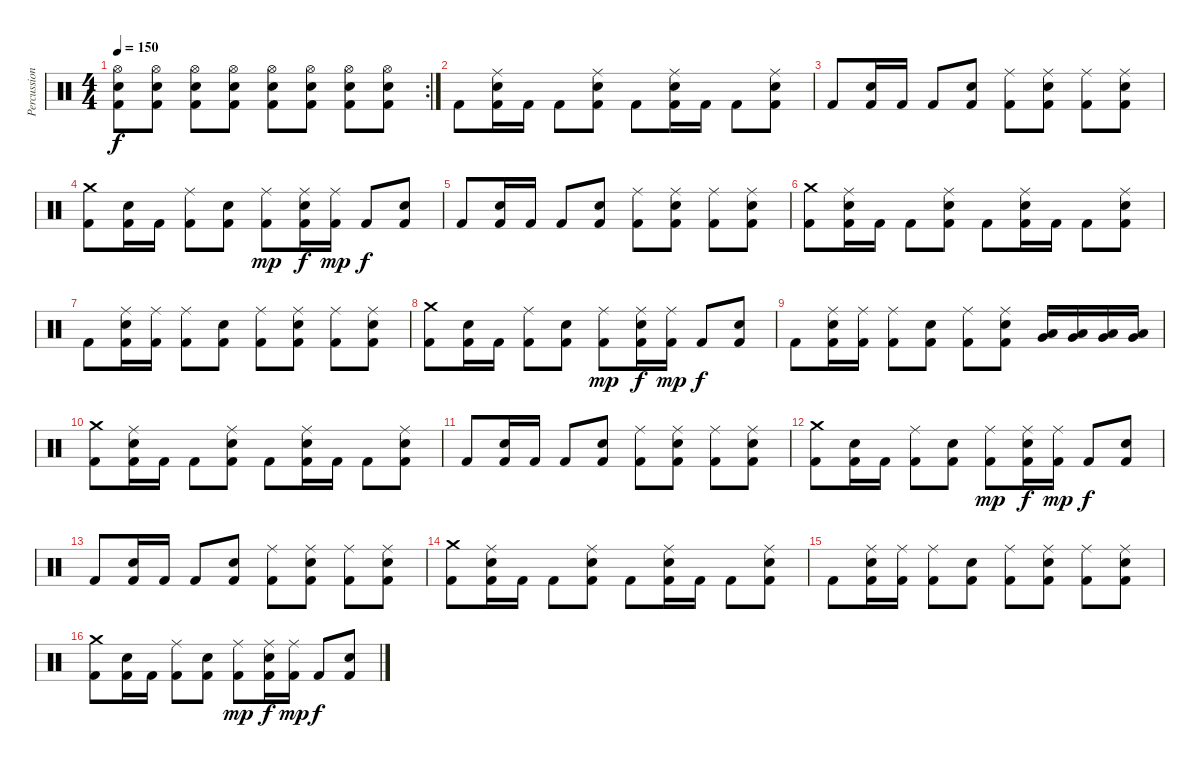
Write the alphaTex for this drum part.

\track ("Percussions" "Percussion") {instrument percussion}
\staff {score}
\articulation defaults
\rc 2
\ts (4 4)
\tempo 150
\clef neutral
\ks c
("Hi-Hat (open)" "Snare (hit) 2" "Kick (hit) 2").8{dy f} ("Hi-Hat (open)" "Snare (hit) 2" "Kick (hit) 2").8 ("Hi-Hat (open)" "Snare (hit) 2" "Kick (hit) 2").8 ("Hi-Hat (open)" "Snare (hit) 2" "Kick (hit) 2").8 ("Hi-Hat (open)" "Snare (hit) 2" "Kick (hit) 2").8 ("Hi-Hat (open)" "Snare (hit) 2" "Kick (hit) 2").8 ("Hi-Hat (open)" "Snare (hit) 2" "Kick (hit) 2").8 ("Hi-Hat (open)" "Snare (hit) 2" "Kick (hit) 2").8 |
"Kick (hit) 2".8 ("Ride (middle)" "Snare (hit) 2" "Kick (hit) 2").16 "Kick (hit) 2".16 "Kick (hit) 2".8 ("Ride (middle)" "Snare (hit) 2" "Kick (hit) 2").8 "Kick (hit) 2".8 ("Ride (middle)" "Snare (hit) 2" "Kick (hit) 2").16 "Kick (hit) 2".16 "Kick (hit) 2".8 ("Ride (middle)" "Snare (hit) 2" "Kick (hit) 2").8 |
"Kick (hit) 2".8 ("Snare (hit) 2" "Kick (hit) 2").16 "Kick (hit) 2".16 "Kick (hit) 2".8 ("Snare (hit) 2" "Kick (hit) 2").8 ("Ride (middle)" "Kick (hit) 2").8 ("Ride (middle)" "Snare (hit) 2" "Kick (hit) 2").8 ("Ride (middle)" "Kick (hit) 2").8 ("Ride (middle)" "Snare (hit) 2" "Kick (hit) 2").8 |
("Crash medium (hit)" "Kick (hit) 2").8 ("Snare (hit) 2" "Kick (hit) 2").16 "Kick (hit) 2".16 ("Ride (middle)" "Kick (hit) 2").8 ("Snare (hit) 2" "Kick (hit) 2").8 ("Ride (middle)" "Kick (hit) 2").8{dy mp} ("Ride (middle)" "Snare (hit) 2" "Kick (hit) 2").16{dy f} ("Ride (middle)" "Kick (hit) 2").16{dy mp} "Kick (hit) 2".8{dy f} ("Snare (hit) 2" "Kick (hit) 2").8 |
"Kick (hit) 2".8 ("Snare (hit) 2" "Kick (hit) 2").16 "Kick (hit) 2".16 "Kick (hit) 2".8 ("Snare (hit) 2" "Kick (hit) 2").8 ("Ride (middle)" "Kick (hit) 2").8 ("Ride (middle)" "Snare (hit) 2" "Kick (hit) 2").8 ("Ride (middle)" "Kick (hit) 2").8 ("Ride (middle)" "Snare (hit) 2" "Kick (hit) 2").8 |
("Crash medium (hit)" "Kick (hit) 2").8 ("Ride (middle)" "Snare (hit) 2" "Kick (hit) 2").16 "Kick (hit) 2".16 "Kick (hit) 2".8 ("Ride (middle)" "Snare (hit) 2" "Kick (hit) 2").8 "Kick (hit) 2".8 ("Ride (middle)" "Snare (hit) 2" "Kick (hit) 2").16 "Kick (hit) 2".16 "Kick (hit) 2".8 ("Ride (middle)" "Snare (hit) 2" "Kick (hit) 2").8 |
"Kick (hit) 2".8 ("Ride (middle)" "Snare (hit) 2" "Kick (hit) 2").16 ("Ride (middle)" "Kick (hit) 2").16 ("Ride (middle)" "Kick (hit) 2").8 ("Snare (hit) 2" "Kick (hit) 2").8 ("Ride (middle)" "Kick (hit) 2").8 ("Ride (middle)" "Snare (hit) 2" "Kick (hit) 2").8 ("Ride (middle)" "Kick (hit) 2").8 ("Ride (middle)" "Snare (hit) 2" "Kick (hit) 2").8 |
("Crash medium (hit)" "Kick (hit) 2").8 ("Snare (hit) 2" "Kick (hit) 2").16 "Kick (hit) 2".16 ("Ride (middle)" "Kick (hit) 2").8 ("Snare (hit) 2" "Kick (hit) 2").8 ("Ride (middle)" "Kick (hit) 2").8{dy mp} ("Ride (middle)" "Snare (hit) 2" "Kick (hit) 2").16{dy f} ("Ride (middle)" "Kick (hit) 2").16{dy mp} "Kick (hit) 2".8{dy f} ("Snare (hit) 2" "Kick (hit) 2").8 |
"Kick (hit) 2".8 ("Ride (middle)" "Snare (hit) 2" "Kick (hit) 2").16 ("Ride (middle)" "Kick (hit) 2").16 ("Ride (middle)" "Kick (hit) 2").8 ("Snare (hit) 2" "Kick (hit) 2").8 ("Ride (middle)" "Kick (hit) 2").8 ("Ride (middle)" "Snare (hit) 2" "Kick (hit) 2").8 ("Low Tom (hit)" "Very Low Tom (hit)").16 ("Low Tom (hit)" "Very Low Tom (hit)").16 ("Low Tom (hit)" "Very Low Tom (hit)").16 ("Very Low Tom (hit)" "Low Tom (hit)").16 |
("Crash medium (hit)" "Kick (hit) 2").8 ("Ride (middle)" "Snare (hit) 2" "Kick (hit) 2").16 "Kick (hit) 2".16 "Kick (hit) 2".8 ("Ride (middle)" "Snare (hit) 2" "Kick (hit) 2").8 "Kick (hit) 2".8 ("Ride (middle)" "Snare (hit) 2" "Kick (hit) 2").16 "Kick (hit) 2".16 "Kick (hit) 2".8 ("Ride (middle)" "Snare (hit) 2" "Kick (hit) 2").8 |
"Kick (hit) 2".8 ("Snare (hit) 2" "Kick (hit) 2").16 "Kick (hit) 2".16 "Kick (hit) 2".8 ("Snare (hit) 2" "Kick (hit) 2").8 ("Ride (middle)" "Kick (hit) 2").8 ("Ride (middle)" "Snare (hit) 2" "Kick (hit) 2").8 ("Ride (middle)" "Kick (hit) 2").8 ("Ride (middle)" "Snare (hit) 2" "Kick (hit) 2").8 |
("Crash medium (hit)" "Kick (hit) 2").8 ("Snare (hit) 2" "Kick (hit) 2").16 "Kick (hit) 2".16 ("Ride (middle)" "Kick (hit) 2").8 ("Snare (hit) 2" "Kick (hit) 2").8 ("Ride (middle)" "Kick (hit) 2").8{dy mp} ("Ride (middle)" "Snare (hit) 2" "Kick (hit) 2").16{dy f} ("Ride (middle)" "Kick (hit) 2").16{dy mp} "Kick (hit) 2".8{dy f} ("Snare (hit) 2" "Kick (hit) 2").8 |
"Kick (hit) 2".8 ("Snare (hit) 2" "Kick (hit) 2").16 "Kick (hit) 2".16 "Kick (hit) 2".8 ("Snare (hit) 2" "Kick (hit) 2").8 ("Ride (middle)" "Kick (hit) 2").8 ("Ride (middle)" "Snare (hit) 2" "Kick (hit) 2").8 ("Ride (middle)" "Kick (hit) 2").8 ("Ride (middle)" "Snare (hit) 2" "Kick (hit) 2").8 |
("Crash medium (hit)" "Kick (hit) 2").8 ("Ride (middle)" "Snare (hit) 2" "Kick (hit) 2").16 "Kick (hit) 2".16 "Kick (hit) 2".8 ("Ride (middle)" "Snare (hit) 2" "Kick (hit) 2").8 "Kick (hit) 2".8 ("Ride (middle)" "Snare (hit) 2" "Kick (hit) 2").16 "Kick (hit) 2".16 "Kick (hit) 2".8 ("Ride (middle)" "Snare (hit) 2" "Kick (hit) 2").8 |
"Kick (hit) 2".8 ("Ride (middle)" "Snare (hit) 2" "Kick (hit) 2").16 ("Ride (middle)" "Kick (hit) 2").16 ("Ride (middle)" "Kick (hit) 2").8 ("Snare (hit) 2" "Kick (hit) 2").8 ("Ride (middle)" "Kick (hit) 2").8 ("Ride (middle)" "Snare (hit) 2" "Kick (hit) 2").8 ("Ride (middle)" "Kick (hit) 2").8 ("Ride (middle)" "Snare (hit) 2" "Kick (hit) 2").8 |
("Crash medium (hit)" "Kick (hit) 2").8 ("Snare (hit) 2" "Kick (hit) 2").16 "Kick (hit) 2".16 ("Ride (middle)" "Kick (hit) 2").8 ("Snare (hit) 2" "Kick (hit) 2").8 ("Ride (middle)" "Kick (hit) 2").8{dy mp} ("Ride (middle)" "Snare (hit) 2" "Kick (hit) 2").16{dy f} ("Ride (middle)" "Kick (hit) 2").16{dy mp} "Kick (hit) 2".8{dy f} ("Snare (hit) 2" "Kick (hit) 2").8
